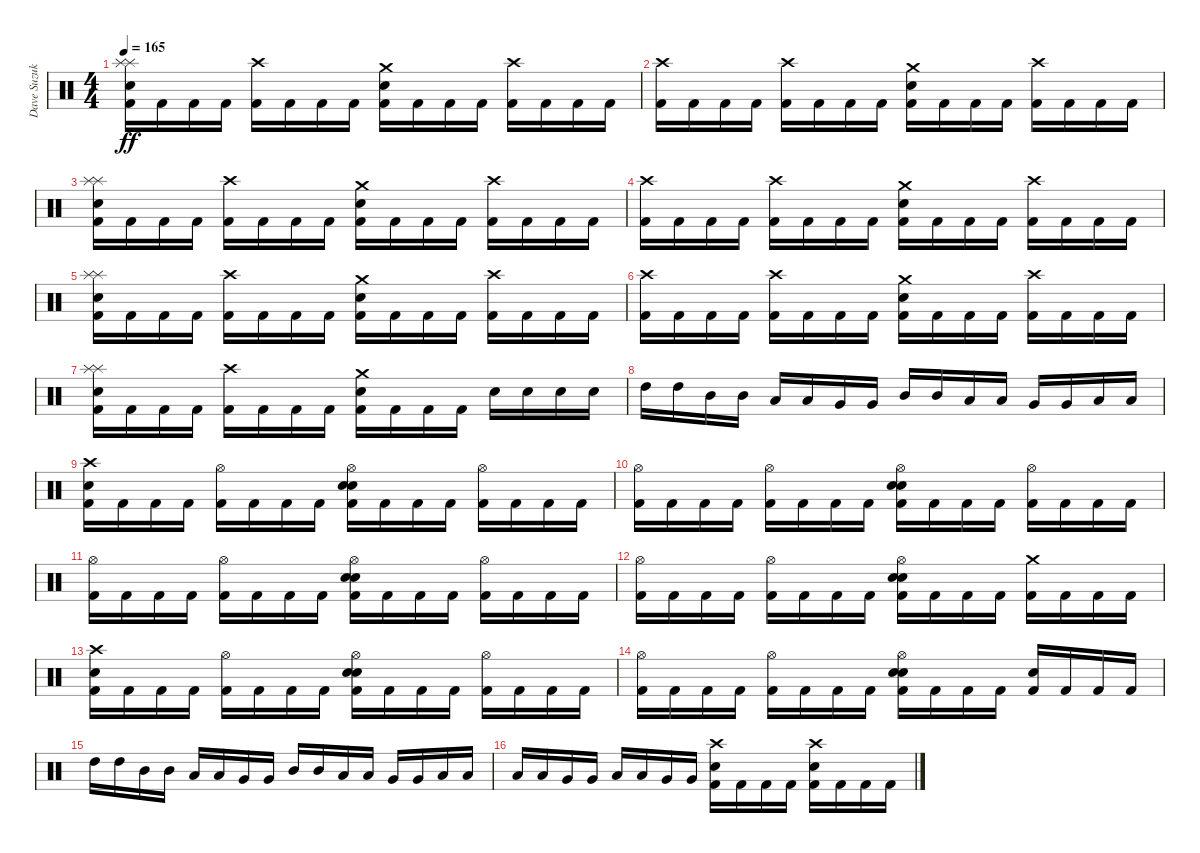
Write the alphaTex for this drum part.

\track ("Dave Suzuki - Drums" "Dave Suzuk") {instrument percussion}
\staff {score}
\articulation defaults
\ts (4 4)
\tempo 165
\clef neutral
\ks c
("Splash (hit)" "Splash (hit)" "Electric Snare (hit)" "Kick (hit) 2").16{dy ff} "Kick (hit) 2".16 "Kick (hit) 2".16 "Kick (hit) 2".16 ("Crash high (hit)" "Kick (hit) 2").16 "Kick (hit) 2".16 "Kick (hit) 2".16 "Kick (hit) 2".16 ("Crash medium (hit)" "Electric Snare (hit)" "Kick (hit) 2").16 "Kick (hit) 2".16 "Kick (hit) 2".16 "Kick (hit) 2".16 ("Crash high (hit)" "Kick (hit) 2").16 "Kick (hit) 2".16 "Kick (hit) 2".16 "Kick (hit) 2".16 |
("Crash high (hit)" "Kick (hit) 2").16 "Kick (hit) 2".16 "Kick (hit) 2".16 "Kick (hit) 2".16 ("Crash high (hit)" "Kick (hit) 2").16 "Kick (hit) 2".16 "Kick (hit) 2".16 "Kick (hit) 2".16 ("Crash medium (hit)" "Electric Snare (hit)" "Kick (hit) 2").16 "Kick (hit) 2".16 "Kick (hit) 2".16 "Kick (hit) 2".16 ("Crash high (hit)" "Kick (hit) 2").16 "Kick (hit) 2".16 "Kick (hit) 2".16 "Kick (hit) 2".16 |
("Splash (hit)" "Splash (hit)" "Electric Snare (hit)" "Kick (hit) 2").16 "Kick (hit) 2".16 "Kick (hit) 2".16 "Kick (hit) 2".16 ("Crash high (hit)" "Kick (hit) 2").16 "Kick (hit) 2".16 "Kick (hit) 2".16 "Kick (hit) 2".16 ("Crash medium (hit)" "Electric Snare (hit)" "Kick (hit) 2").16 "Kick (hit) 2".16 "Kick (hit) 2".16 "Kick (hit) 2".16 ("Crash high (hit)" "Kick (hit) 2").16 "Kick (hit) 2".16 "Kick (hit) 2".16 "Kick (hit) 2".16 |
("Crash high (hit)" "Kick (hit) 2").16 "Kick (hit) 2".16 "Kick (hit) 2".16 "Kick (hit) 2".16 ("Crash high (hit)" "Kick (hit) 2").16 "Kick (hit) 2".16 "Kick (hit) 2".16 "Kick (hit) 2".16 ("Crash medium (hit)" "Electric Snare (hit)" "Kick (hit) 2").16 "Kick (hit) 2".16 "Kick (hit) 2".16 "Kick (hit) 2".16 ("Crash high (hit)" "Kick (hit) 2").16 "Kick (hit) 2".16 "Kick (hit) 2".16 "Kick (hit) 2".16 |
("Splash (hit)" "Splash (hit)" "Electric Snare (hit)" "Kick (hit) 2").16 "Kick (hit) 2".16 "Kick (hit) 2".16 "Kick (hit) 2".16 ("Crash high (hit)" "Kick (hit) 2").16 "Kick (hit) 2".16 "Kick (hit) 2".16 "Kick (hit) 2".16 ("Crash medium (hit)" "Electric Snare (hit)" "Kick (hit) 2").16 "Kick (hit) 2".16 "Kick (hit) 2".16 "Kick (hit) 2".16 ("Crash high (hit)" "Kick (hit) 2").16 "Kick (hit) 2".16 "Kick (hit) 2".16 "Kick (hit) 2".16 |
("Crash high (hit)" "Kick (hit) 2").16 "Kick (hit) 2".16 "Kick (hit) 2".16 "Kick (hit) 2".16 ("Crash high (hit)" "Kick (hit) 2").16 "Kick (hit) 2".16 "Kick (hit) 2".16 "Kick (hit) 2".16 ("Crash medium (hit)" "Electric Snare (hit)" "Kick (hit) 2").16 "Kick (hit) 2".16 "Kick (hit) 2".16 "Kick (hit) 2".16 ("Crash high (hit)" "Kick (hit) 2").16 "Kick (hit) 2".16 "Kick (hit) 2".16 "Kick (hit) 2".16 |
("Splash (hit)" "Splash (hit)" "Electric Snare (hit)" "Kick (hit) 2").16 "Kick (hit) 2".16 "Kick (hit) 2".16 "Kick (hit) 2".16 ("Crash high (hit)" "Kick (hit) 2").16 "Kick (hit) 2".16 "Kick (hit) 2".16 "Kick (hit) 2".16 ("Crash medium (hit)" "Electric Snare (hit)" "Kick (hit) 2").16 "Kick (hit) 2".16 "Kick (hit) 2".16 "Kick (hit) 2".16 "Electric Snare (hit)".16 "Electric Snare (hit)".16 "Electric Snare (hit)".16 "Electric Snare (hit)".16 |
"High Tom (hit)".16 "High Tom (hit)".16 "Mid Tom (hit)".16 "Mid Tom (hit)".16 "Low Tom (hit)".16 "Low Tom (hit)".16 "Very Low Tom (hit)".16 "Very Low Tom (hit)".16 "Mid Tom (hit)".16 "Mid Tom (hit)".16 "Low Tom (hit)".16 "Low Tom (hit)".16 "Very Low Tom (hit)".16 "Very Low Tom (hit)".16 "Low Floor Tom (hit)".16 "Low Floor Tom (hit)".16 |
("Crash high (hit)" "Electric Snare (hit)" "Kick (hit) 2").16 "Kick (hit) 2".16 "Kick (hit) 2".16 "Kick (hit) 2".16 ("Hi-Hat (open)" "Kick (hit) 2").16 "Kick (hit) 2".16 "Kick (hit) 2".16 "Kick (hit) 2".16 ("Hi-Hat (open)" "Electric Snare (hit)" "Electric Snare (hit)" "Kick (hit) 2").16 "Kick (hit) 2".16 "Kick (hit) 2".16 "Kick (hit) 2".16 ("Hi-Hat (open)" "Kick (hit) 2").16 "Kick (hit) 2".16 "Kick (hit) 2".16 "Kick (hit) 2".16 |
("Hi-Hat (open)" "Kick (hit) 2").16 "Kick (hit) 2".16 "Kick (hit) 2".16 "Kick (hit) 2".16 ("Hi-Hat (open)" "Kick (hit) 2").16 "Kick (hit) 2".16 "Kick (hit) 2".16 "Kick (hit) 2".16 ("Hi-Hat (open)" "Electric Snare (hit)" "Electric Snare (hit)" "Kick (hit) 2").16 "Kick (hit) 2".16 "Kick (hit) 2".16 "Kick (hit) 2".16 ("Hi-Hat (open)" "Kick (hit) 2").16 "Kick (hit) 2".16 "Kick (hit) 2".16 "Kick (hit) 2".16 |
("Hi-Hat (open)" "Kick (hit) 2").16 "Kick (hit) 2".16 "Kick (hit) 2".16 "Kick (hit) 2".16 ("Hi-Hat (open)" "Kick (hit) 2").16 "Kick (hit) 2".16 "Kick (hit) 2".16 "Kick (hit) 2".16 ("Hi-Hat (open)" "Electric Snare (hit)" "Electric Snare (hit)" "Kick (hit) 2").16 "Kick (hit) 2".16 "Kick (hit) 2".16 "Kick (hit) 2".16 ("Hi-Hat (open)" "Kick (hit) 2").16 "Kick (hit) 2".16 "Kick (hit) 2".16 "Kick (hit) 2".16 |
("Hi-Hat (open)" "Kick (hit) 2").16 "Kick (hit) 2".16 "Kick (hit) 2".16 "Kick (hit) 2".16 ("Hi-Hat (open)" "Kick (hit) 2").16 "Kick (hit) 2".16 "Kick (hit) 2".16 "Kick (hit) 2".16 ("Hi-Hat (open)" "Electric Snare (hit)" "Electric Snare (hit)" "Kick (hit) 2").16 "Kick (hit) 2".16 "Kick (hit) 2".16 "Kick (hit) 2".16 ("Crash medium (hit)" "Kick (hit) 2").16 "Kick (hit) 2".16 "Kick (hit) 2".16 "Kick (hit) 2".16 |
("Crash high (hit)" "Electric Snare (hit)" "Kick (hit) 2").16 "Kick (hit) 2".16 "Kick (hit) 2".16 "Kick (hit) 2".16 ("Hi-Hat (open)" "Kick (hit) 2").16 "Kick (hit) 2".16 "Kick (hit) 2".16 "Kick (hit) 2".16 ("Hi-Hat (open)" "Electric Snare (hit)" "Electric Snare (hit)" "Kick (hit) 2").16 "Kick (hit) 2".16 "Kick (hit) 2".16 "Kick (hit) 2".16 ("Hi-Hat (open)" "Kick (hit) 2").16 "Kick (hit) 2".16 "Kick (hit) 2".16 "Kick (hit) 2".16 |
("Hi-Hat (open)" "Kick (hit) 2").16 "Kick (hit) 2".16 "Kick (hit) 2".16 "Kick (hit) 2".16 ("Hi-Hat (open)" "Kick (hit) 2").16 "Kick (hit) 2".16 "Kick (hit) 2".16 "Kick (hit) 2".16 ("Hi-Hat (open)" "Electric Snare (hit)" "Electric Snare (hit)" "Kick (hit) 2").16 "Kick (hit) 2".16 "Kick (hit) 2".16 "Kick (hit) 2".16 ("Electric Snare (hit)" "Kick (hit) 2").16 "Kick (hit) 2".16 "Kick (hit) 2".16 "Kick (hit) 2".16 |
"High Tom (hit)".16 "High Tom (hit)".16 "Mid Tom (hit)".16 "Mid Tom (hit)".16 "Low Tom (hit)".16 "Low Tom (hit)".16 "Very Low Tom (hit)".16 "Very Low Tom (hit)".16 "Mid Tom (hit)".16 "Mid Tom (hit)".16 "Low Tom (hit)".16 "Low Tom (hit)".16 "Very Low Tom (hit)".16 "Very Low Tom (hit)".16 "Low Floor Tom (hit)".16 "Low Floor Tom (hit)".16 |
"Low Tom (hit)".16 "Low Tom (hit)".16 "Very Low Tom (hit)".16 "Very Low Tom (hit)".16 "Low Floor Tom (hit)".16 "Low Floor Tom (hit)".16 "Very Low Tom (hit)".16 "Very Low Tom (hit)".16 ("Crash high (hit)" "Electric Snare (hit)" "Kick (hit) 2").16 "Kick (hit) 2".16 "Kick (hit) 2".16 "Kick (hit) 2".16 ("Crash high (hit)" "Electric Snare (hit)" "Kick (hit) 2").16 "Kick (hit) 2".16 "Kick (hit) 2".16 "Kick (hit) 2".16
